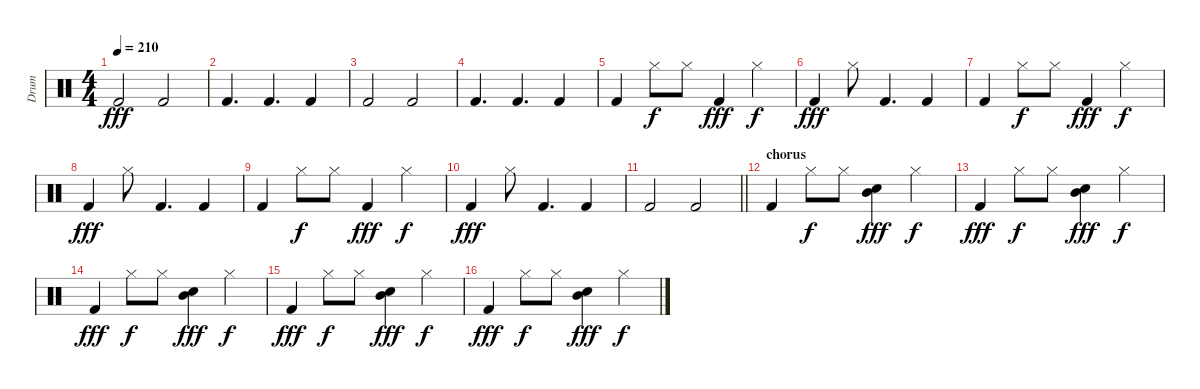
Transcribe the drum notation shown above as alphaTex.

\track ("Drum" "Drum") {instrument percussion}
\staff {score}
\articulation defaults
\ts (4 4)
\tempo 210
\clef neutral
\ks c "Kick (hit) 2".2{dy fff} "Kick (hit) 2".2
|
"Kick (hit) 2".4{d} "Kick (hit) 2".4{d} "Kick (hit) 2".4 |
"Kick (hit) 2".2 "Kick (hit) 2".2 |
"Kick (hit) 2".4{d} "Kick (hit) 2".4{d} "Kick (hit) 2".4 |
"Kick (hit) 2".4 "Hi-Hat (closed)".8{dy f} "Hi-Hat (closed)".8 "Kick (hit) 2".4{dy fff} "Hi-Hat (closed)".4{dy f} |
"Kick (hit) 2".4{dy fff} "Hi-Hat (closed)".8 "Kick (hit) 2".4{d} "Kick (hit) 2".4 |
"Kick (hit) 2".4 "Hi-Hat (closed)".8{dy f} "Hi-Hat (closed)".8 "Kick (hit) 2".4{dy fff} "Hi-Hat (closed)".4{dy f} |
"Kick (hit) 2".4{dy fff} "Hi-Hat (closed)".8 "Kick (hit) 2".4{d} "Kick (hit) 2".4 |
"Kick (hit) 2".4 "Hi-Hat (closed)".8{dy f} "Hi-Hat (closed)".8 "Kick (hit) 2".4{dy fff} "Hi-Hat (closed)".4{dy f} |
"Kick (hit) 2".4{dy fff} "Hi-Hat (closed)".8 "Kick (hit) 2".4{d} "Kick (hit) 2".4 |
\barLineRight lightlight "Kick (hit) 2".2 "Kick (hit) 2".2
|
\section ("" "chorus")
"Kick (hit) 2".4 "Hi-Hat (closed)".8{dy f} "Hi-Hat (closed)".8 ("Snare (hit) 2" "Mid Tom (hit)").4{dy fff} "Hi-Hat (closed)".4{dy f} |
"Kick (hit) 2".4{dy fff} "Hi-Hat (closed)".8{dy f} "Hi-Hat (closed)".8 ("Snare (hit) 2" "Mid Tom (hit)").4{dy fff} "Hi-Hat (closed)".4{dy f} |
"Kick (hit) 2".4{dy fff} "Hi-Hat (closed)".8{dy f} "Hi-Hat (closed)".8 ("Snare (hit) 2" "Mid Tom (hit)").4{dy fff} "Hi-Hat (closed)".4{dy f} |
"Kick (hit) 2".4{dy fff} "Hi-Hat (closed)".8{dy f} "Hi-Hat (closed)".8 ("Snare (hit) 2" "Mid Tom (hit)").4{dy fff} "Hi-Hat (closed)".4{dy f} |
"Kick (hit) 2".4{dy fff} "Hi-Hat (closed)".8{dy f} "Hi-Hat (closed)".8 ("Snare (hit) 2" "Mid Tom (hit)").4{dy fff} "Hi-Hat (closed)".4{dy f}
